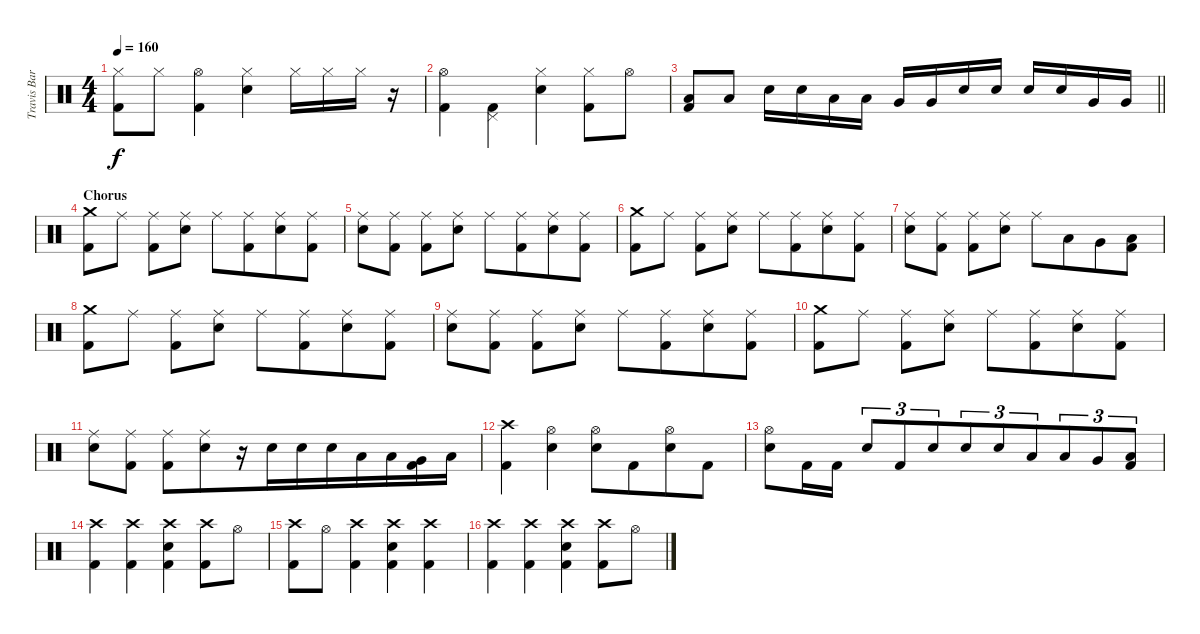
\track ("Travis Barker - Drums" "Travis Bar") {instrument percussion}
\staff {score}
\articulation defaults
\ts (4 4)
\tempo 160
\clef neutral
\ks c
("Hi-Hat (closed)" "Kick (hit) 2").8{dy f beam merge} "Hi-Hat (closed)".8{beam merge} ("Hi-Hat (open)" "Kick (hit) 2").4 ("Hi-Hat (closed)" "Electric Snare (hit)").4{beam merge} "Hi-Hat (closed)".16 "Hi-Hat (closed)".16 "Hi-Hat (closed)".16 r.16 |
("Hi-Hat (open)" "Kick (hit) 2").4 ("Pedal Hi-Hat (hit)" "Kick (hit) 2").4{beam merge} ("Hi-Hat (closed)" "Electric Snare (hit)").4{beam merge} ("Hi-Hat (closed)" "Kick (hit) 2").8 "Hi-Hat (open)".8 |
\barLineRight lightlight
("Low Tom (hit)" "Kick (hit) 2").8 "Low Floor Tom (hit)".8 "Electric Snare (hit)".16{beam merge} "Electric Snare (hit)".16 "Low Tom (hit)".16{beam merge} "Low Tom (hit)".16 "Very Low Tom (hit)".16 "Very Low Tom (hit)".16{beam merge} "Electric Snare (hit)".16 "Electric Snare (hit)".16 "Electric Snare (hit)".16 "Electric Snare (hit)".16 "Very Low Tom (hit)".16 "Very Low Tom (hit)".16 |
\section ("" "Chorus")
("Crash medium (hit)" "Kick (hit) 2").8{beam merge} "Ride (middle)".8 ("Ride (middle)" "Kick (hit) 2").8 ("Ride (middle)" "Electric Snare (hit)").8 "Ride (middle)".8{beam merge} ("Ride (middle)" "Kick (hit) 2").8{beam merge} ("Ride (middle)" "Electric Snare (hit)").8{beam merge} ("Ride (middle)" "Kick (hit) 2").8 |
("Ride (middle)" "Electric Snare (hit)").8{beam merge} ("Ride (middle)" "Kick (hit) 2").8 ("Ride (middle)" "Kick (hit) 2").8 ("Ride (middle)" "Electric Snare (hit)").8 "Ride (middle)".8{beam merge} ("Ride (middle)" "Kick (hit) 2").8{beam merge} ("Ride (middle)" "Electric Snare (hit)").8{beam merge} ("Ride (middle)" "Kick (hit) 2").8 |
("Crash medium (hit)" "Kick (hit) 2").8{beam merge} "Ride (middle)".8 ("Ride (middle)" "Kick (hit) 2").8 ("Ride (middle)" "Electric Snare (hit)").8 "Ride (middle)".8{beam merge} ("Ride (middle)" "Kick (hit) 2").8{beam merge} ("Ride (middle)" "Electric Snare (hit)").8{beam merge} ("Ride (middle)" "Kick (hit) 2").8 |
("Ride (middle)" "Electric Snare (hit)").8{beam merge} ("Ride (middle)" "Kick (hit) 2").8 ("Ride (middle)" "Kick (hit) 2").8 ("Ride (middle)" "Electric Snare (hit)").8 "Ride (middle)".8{beam merge} "Low Tom (hit)".8{beam merge} "Very Low Tom (hit)".8{beam merge} ("Low Floor Tom (hit)" "Kick (hit) 2").8 |
("Crash medium (hit)" "Kick (hit) 2").8{beam merge} "Ride (middle)".8 ("Ride (middle)" "Kick (hit) 2").8 ("Ride (middle)" "Electric Snare (hit)").8 "Ride (middle)".8{beam merge} ("Ride (middle)" "Kick (hit) 2").8{beam merge} ("Ride (middle)" "Electric Snare (hit)").8{beam merge} ("Ride (middle)" "Kick (hit) 2").8 |
("Ride (middle)" "Electric Snare (hit)").8{beam merge} ("Ride (middle)" "Kick (hit) 2").8 ("Ride (middle)" "Kick (hit) 2").8 ("Ride (middle)" "Electric Snare (hit)").8 "Ride (middle)".8{beam merge} ("Ride (middle)" "Kick (hit) 2").8{beam merge} ("Ride (middle)" "Electric Snare (hit)").8{beam merge} ("Ride (middle)" "Kick (hit) 2").8 |
("Crash medium (hit)" "Kick (hit) 2").8{beam merge} "Ride (middle)".8 ("Ride (middle)" "Kick (hit) 2").8 ("Ride (middle)" "Electric Snare (hit)").8 "Ride (middle)".8{beam merge} ("Ride (middle)" "Kick (hit) 2").8{beam merge} ("Ride (middle)" "Electric Snare (hit)").8{beam merge} ("Ride (middle)" "Kick (hit) 2").8 |
("Ride (middle)" "Electric Snare (hit)").8{beam merge} ("Ride (middle)" "Kick (hit) 2").8 ("Ride (middle)" "Kick (hit) 2").8 ("Ride (middle)" "Electric Snare (hit)").8{beam merge} r.16 "Electric Snare (hit)".16{beam merge} "Electric Snare (hit)".16{beam merge} "Electric Snare (hit)".16{beam merge} "Low Tom (hit)".16{beam merge} "Low Tom (hit)".16{beam merge} ("Very Low Tom (hit)" "Kick (hit) 2").16 "Low Floor Tom (hit)".16 |
("Crash high (hit)" "Kick (hit) 2").4 ("Hi-Hat (open)" "Electric Snare (hit)").4{beam merge} ("Hi-Hat (open)" "Electric Snare (hit)").8{beam merge} "Kick (hit) 2".8{beam merge} ("Hi-Hat (open)" "Electric Snare (hit)").8{beam merge} "Kick (hit) 2".8 |
("Hi-Hat (open)" "Electric Snare (hit)").8{beam merge} "Kick (hit) 2".16 "Kick (hit) 2".16 "Electric Snare (hit)".8{tu (3 2)} "Kick (hit) 2".8{tu (3 2) beam merge} "Electric Snare (hit)".8{tu (3 2) beam merge} "Electric Snare (hit)".8{tu (3 2)} "Electric Snare (hit)".8{tu (3 2)} "Low Tom (hit)".8{tu (3 2) beam merge} "Low Tom (hit)".8{tu (3 2)} "Very Low Tom (hit)".8{tu (3 2)} ("Low Floor Tom (hit)" "Kick (hit) 2").8{tu (3 2)} |
("Crash high (hit)" "Kick (hit) 2").4 ("Crash high (hit)" "Kick (hit) 2").4 ("Crash high (hit)" "Electric Snare (hit)" "Kick (hit) 2").4{beam merge} ("Crash high (hit)" "Kick (hit) 2").8{beam merge} "Hi-Hat (open)".8 |
("Crash high (hit)" "Kick (hit) 2").8 "Hi-Hat (open)".8{beam merge} ("Crash high (hit)" "Kick (hit) 2").4{beam merge} ("Crash high (hit)" "Electric Snare (hit)" "Kick (hit) 2").4 ("Crash high (hit)" "Kick (hit) 2").4 |
("Crash high (hit)" "Kick (hit) 2").4 ("Crash high (hit)" "Kick (hit) 2").4 ("Crash high (hit)" "Electric Snare (hit)" "Kick (hit) 2").4{beam merge} ("Crash high (hit)" "Kick (hit) 2").8{beam merge} "Hi-Hat (open)".8
